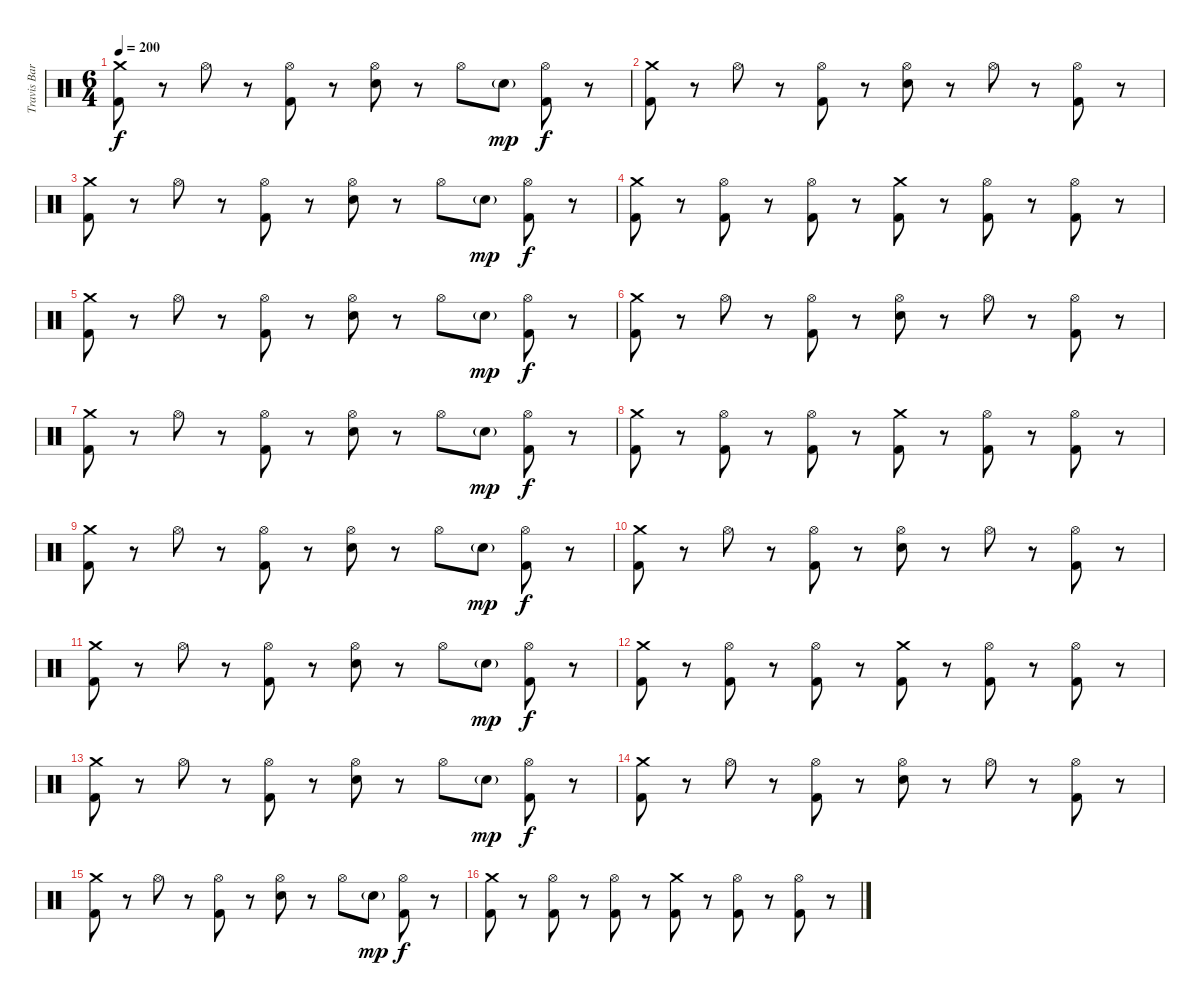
\track ("Travis Barker - Drums" "Travis Bar") {instrument percussion}
\staff {score}
\articulation defaults
\ts (6 4)
\tempo 200
\clef neutral
\ks c
("Crash medium (hit)" "Kick (hit) 2").8{dy f} r.8 "Hi-Hat (open)".8 r.8 ("Hi-Hat (open)" "Kick (hit) 2").8 r.8 ("Hi-Hat (open)" "Electric Snare (hit)").8 r.8 "Hi-Hat (open)".8 "Electric Snare (hit)"{g}.8{dy mp} ("Hi-Hat (open)" "Kick (hit) 2").8{dy f} r.8 |
("Crash medium (hit)" "Kick (hit) 2").8 r.8 "Hi-Hat (open)".8 r.8 ("Hi-Hat (open)" "Kick (hit) 2").8 r.8 ("Hi-Hat (open)" "Electric Snare (hit)").8 r.8 "Hi-Hat (open)".8 r.8 ("Hi-Hat (open)" "Kick (hit) 2").8 r.8 |
("Crash medium (hit)" "Kick (hit) 2").8 r.8 "Hi-Hat (open)".8 r.8 ("Hi-Hat (open)" "Kick (hit) 2").8 r.8 ("Hi-Hat (open)" "Electric Snare (hit)").8 r.8 "Hi-Hat (open)".8 "Electric Snare (hit)"{g}.8{dy mp} ("Hi-Hat (open)" "Kick (hit) 2").8{dy f} r.8 |
("Crash medium (hit)" "Kick (hit) 2").8 r.8 ("Hi-Hat (open)" "Kick (hit) 2").8 r.8 ("Hi-Hat (open)" "Kick (hit) 2").8 r.8 ("Crash medium (hit)" "Kick (hit) 2").8 r.8 ("Hi-Hat (open)" "Kick (hit) 2").8 r.8 ("Hi-Hat (open)" "Kick (hit) 2").8 r.8 |
("Crash medium (hit)" "Kick (hit) 2").8 r.8 "Hi-Hat (open)".8 r.8 ("Hi-Hat (open)" "Kick (hit) 2").8 r.8 ("Hi-Hat (open)" "Electric Snare (hit)").8 r.8 "Hi-Hat (open)".8 "Electric Snare (hit)"{g}.8{dy mp} ("Hi-Hat (open)" "Kick (hit) 2").8{dy f} r.8 |
("Crash medium (hit)" "Kick (hit) 2").8 r.8 "Hi-Hat (open)".8 r.8 ("Hi-Hat (open)" "Kick (hit) 2").8 r.8 ("Hi-Hat (open)" "Electric Snare (hit)").8 r.8 "Hi-Hat (open)".8 r.8 ("Hi-Hat (open)" "Kick (hit) 2").8 r.8 |
("Crash medium (hit)" "Kick (hit) 2").8 r.8 "Hi-Hat (open)".8 r.8 ("Hi-Hat (open)" "Kick (hit) 2").8 r.8 ("Hi-Hat (open)" "Electric Snare (hit)").8 r.8 "Hi-Hat (open)".8 "Electric Snare (hit)"{g}.8{dy mp} ("Hi-Hat (open)" "Kick (hit) 2").8{dy f} r.8 |
("Crash medium (hit)" "Kick (hit) 2").8 r.8 ("Hi-Hat (open)" "Kick (hit) 2").8 r.8 ("Hi-Hat (open)" "Kick (hit) 2").8 r.8 ("Crash medium (hit)" "Kick (hit) 2").8 r.8 ("Hi-Hat (open)" "Kick (hit) 2").8 r.8 ("Hi-Hat (open)" "Kick (hit) 2").8 r.8 |
("Crash medium (hit)" "Kick (hit) 2").8 r.8 "Hi-Hat (open)".8 r.8 ("Hi-Hat (open)" "Kick (hit) 2").8 r.8 ("Hi-Hat (open)" "Electric Snare (hit)").8 r.8 "Hi-Hat (open)".8 "Electric Snare (hit)"{g}.8{dy mp} ("Hi-Hat (open)" "Kick (hit) 2").8{dy f} r.8 |
("Crash medium (hit)" "Kick (hit) 2").8 r.8 "Hi-Hat (open)".8 r.8 ("Hi-Hat (open)" "Kick (hit) 2").8 r.8 ("Hi-Hat (open)" "Electric Snare (hit)").8 r.8 "Hi-Hat (open)".8 r.8 ("Hi-Hat (open)" "Kick (hit) 2").8 r.8 |
("Crash medium (hit)" "Kick (hit) 2").8 r.8 "Hi-Hat (open)".8 r.8 ("Hi-Hat (open)" "Kick (hit) 2").8 r.8 ("Hi-Hat (open)" "Electric Snare (hit)").8 r.8 "Hi-Hat (open)".8 "Electric Snare (hit)"{g}.8{dy mp} ("Hi-Hat (open)" "Kick (hit) 2").8{dy f} r.8 |
("Crash medium (hit)" "Kick (hit) 2").8 r.8 ("Hi-Hat (open)" "Kick (hit) 2").8 r.8 ("Hi-Hat (open)" "Kick (hit) 2").8 r.8 ("Crash medium (hit)" "Kick (hit) 2").8 r.8 ("Hi-Hat (open)" "Kick (hit) 2").8 r.8 ("Hi-Hat (open)" "Kick (hit) 2").8 r.8 |
("Crash medium (hit)" "Kick (hit) 2").8 r.8 "Hi-Hat (open)".8 r.8 ("Hi-Hat (open)" "Kick (hit) 2").8 r.8 ("Hi-Hat (open)" "Electric Snare (hit)").8 r.8 "Hi-Hat (open)".8 "Electric Snare (hit)"{g}.8{dy mp} ("Hi-Hat (open)" "Kick (hit) 2").8{dy f} r.8 |
("Crash medium (hit)" "Kick (hit) 2").8 r.8 "Hi-Hat (open)".8 r.8 ("Hi-Hat (open)" "Kick (hit) 2").8 r.8 ("Hi-Hat (open)" "Electric Snare (hit)").8 r.8 "Hi-Hat (open)".8 r.8 ("Hi-Hat (open)" "Kick (hit) 2").8 r.8 |
("Crash medium (hit)" "Kick (hit) 2").8 r.8 "Hi-Hat (open)".8 r.8 ("Hi-Hat (open)" "Kick (hit) 2").8 r.8 ("Hi-Hat (open)" "Electric Snare (hit)").8 r.8 "Hi-Hat (open)".8 "Electric Snare (hit)"{g}.8{dy mp} ("Hi-Hat (open)" "Kick (hit) 2").8{dy f} r.8 |
("Crash medium (hit)" "Kick (hit) 2").8 r.8 ("Hi-Hat (open)" "Kick (hit) 2").8 r.8 ("Hi-Hat (open)" "Kick (hit) 2").8 r.8 ("Crash medium (hit)" "Kick (hit) 2").8 r.8 ("Hi-Hat (open)" "Kick (hit) 2").8 r.8 ("Hi-Hat (open)" "Kick (hit) 2").8 r.8
